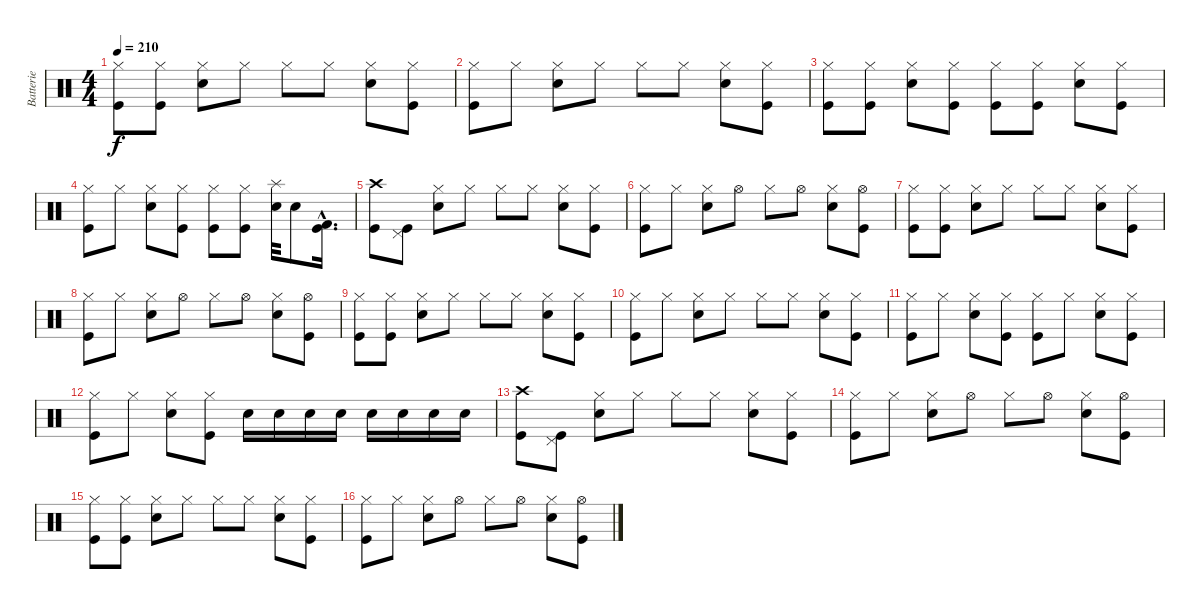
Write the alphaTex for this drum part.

\track ("Batterie" "Batterie") {instrument percussion}
\staff {score}
\articulation defaults
\ts (4 4)
\tempo 210
\clef neutral
\ks c
("Hi-Hat (closed)" "Kick (hit)").8{dy f} ("Hi-Hat (closed)" "Kick (hit)").8 ("Hi-Hat (closed)" "Snare (hit) 2").8 "Hi-Hat (closed)".8 "Hi-Hat (closed)".8 "Hi-Hat (closed)".8 ("Hi-Hat (closed)" "Snare (hit) 2").8 ("Hi-Hat (closed)" "Kick (hit)").8 |
("Hi-Hat (closed)" "Kick (hit)").8 "Hi-Hat (closed)".8 ("Hi-Hat (closed)" "Snare (hit) 2").8 "Hi-Hat (closed)".8 "Hi-Hat (closed)".8 "Hi-Hat (closed)".8 ("Hi-Hat (closed)" "Snare (hit) 2").8 ("Hi-Hat (closed)" "Kick (hit)").8 |
("Hi-Hat (closed)" "Kick (hit)").8 ("Hi-Hat (closed)" "Kick (hit)").8 ("Hi-Hat (closed)" "Snare (hit) 2").8 ("Hi-Hat (closed)" "Kick (hit)").8 ("Hi-Hat (closed)" "Kick (hit)").8 ("Hi-Hat (closed)" "Kick (hit)").8 ("Hi-Hat (closed)" "Snare (hit) 2").8 ("Hi-Hat (closed)" "Kick (hit)").8 |
("Hi-Hat (closed)" "Kick (hit)").8 "Hi-Hat (closed)".8 ("Hi-Hat (closed)" "Snare (hit) 2").8 ("Hi-Hat (closed)" "Kick (hit)").8 ("Hi-Hat (closed)" "Kick (hit)").8 ("Hi-Hat (closed)" "Kick (hit)").8 ("Splash (hit)" "Snare (hit) 2").32 "Snare (hit) 2".8 ("Kick (hit) 2"{hac} "Kick (hit)"{hac}).16{d} |
("Crash high (hit)" "Kick (hit)").8 ("Pedal Hi-Hat (hit)" "Kick (hit)").8 ("Hi-Hat (closed)" "Snare (hit) 2").8 "Hi-Hat (closed)".8 "Hi-Hat (closed)".8 "Hi-Hat (closed)".8 ("Hi-Hat (closed)" "Snare (hit) 2").8 ("Hi-Hat (closed)" "Kick (hit)").8 |
("Hi-Hat (closed)" "Kick (hit)").8 "Hi-Hat (closed)".8 ("Hi-Hat (closed)" "Snare (hit) 2").8 "Hi-Hat (open)".8 "Hi-Hat (closed)".8 "Hi-Hat (open)".8 ("Hi-Hat (closed)" "Snare (hit) 2").8 ("Hi-Hat (open)" "Kick (hit)").8 |
("Hi-Hat (closed)" "Kick (hit)").8 ("Hi-Hat (closed)" "Kick (hit)").8 ("Hi-Hat (closed)" "Snare (hit) 2").8 "Hi-Hat (closed)".8 "Hi-Hat (closed)".8 "Hi-Hat (closed)".8 ("Hi-Hat (closed)" "Snare (hit) 2").8 ("Hi-Hat (closed)" "Kick (hit)").8 |
("Hi-Hat (closed)" "Kick (hit)").8 "Hi-Hat (closed)".8 ("Hi-Hat (closed)" "Snare (hit) 2").8 "Hi-Hat (open)".8 "Hi-Hat (closed)".8 "Hi-Hat (open)".8 ("Hi-Hat (closed)" "Snare (hit) 2").8 ("Hi-Hat (open)" "Kick (hit)").8 |
("Hi-Hat (closed)" "Kick (hit)").8 ("Hi-Hat (closed)" "Kick (hit)").8 ("Hi-Hat (closed)" "Snare (hit) 2").8 "Hi-Hat (closed)".8 "Hi-Hat (closed)".8 "Hi-Hat (closed)".8 ("Hi-Hat (closed)" "Snare (hit) 2").8 ("Hi-Hat (closed)" "Kick (hit)").8 |
("Hi-Hat (closed)" "Kick (hit)").8 "Hi-Hat (closed)".8 ("Hi-Hat (closed)" "Snare (hit) 2").8 "Hi-Hat (closed)".8 "Hi-Hat (closed)".8 "Hi-Hat (closed)".8 ("Hi-Hat (closed)" "Snare (hit) 2").8 ("Hi-Hat (closed)" "Kick (hit)").8 |
("Hi-Hat (closed)" "Kick (hit)").8 "Hi-Hat (closed)".8 ("Hi-Hat (closed)" "Snare (hit) 2").8 ("Hi-Hat (closed)" "Kick (hit)").8 ("Hi-Hat (closed)" "Kick (hit)").8 "Hi-Hat (closed)".8 ("Hi-Hat (closed)" "Snare (hit) 2").8 ("Hi-Hat (closed)" "Kick (hit)").8 |
("Hi-Hat (closed)" "Kick (hit)").8 "Hi-Hat (closed)".8 ("Hi-Hat (closed)" "Snare (hit) 2").8 ("Hi-Hat (closed)" "Kick (hit)").8 "Snare (hit) 2".16 "Snare (hit) 2".16 "Snare (hit) 2".16 "Snare (hit) 2".16 "Snare (hit) 2".16 "Snare (hit) 2".16 "Snare (hit) 2".16 "Snare (hit) 2".16 |
("Crash high (hit)" "Kick (hit)").8 ("Pedal Hi-Hat (hit)" "Kick (hit)").8 ("Hi-Hat (closed)" "Snare (hit) 2").8 "Hi-Hat (closed)".8 "Hi-Hat (closed)".8 "Hi-Hat (closed)".8 ("Hi-Hat (closed)" "Snare (hit) 2").8 ("Hi-Hat (closed)" "Kick (hit)").8 |
("Hi-Hat (closed)" "Kick (hit)").8 "Hi-Hat (closed)".8 ("Hi-Hat (closed)" "Snare (hit) 2").8 "Hi-Hat (open)".8 "Hi-Hat (closed)".8 "Hi-Hat (open)".8 ("Hi-Hat (closed)" "Snare (hit) 2").8 ("Hi-Hat (open)" "Kick (hit)").8 |
("Hi-Hat (closed)" "Kick (hit)").8 ("Hi-Hat (closed)" "Kick (hit)").8 ("Hi-Hat (closed)" "Snare (hit) 2").8 "Hi-Hat (closed)".8 "Hi-Hat (closed)".8 "Hi-Hat (closed)".8 ("Hi-Hat (closed)" "Snare (hit) 2").8 ("Hi-Hat (closed)" "Kick (hit)").8 |
("Hi-Hat (closed)" "Kick (hit)").8 "Hi-Hat (closed)".8 ("Hi-Hat (closed)" "Snare (hit) 2").8 "Hi-Hat (open)".8 "Hi-Hat (closed)".8 "Hi-Hat (open)".8 ("Hi-Hat (closed)" "Snare (hit) 2").8 ("Hi-Hat (open)" "Kick (hit)").8
